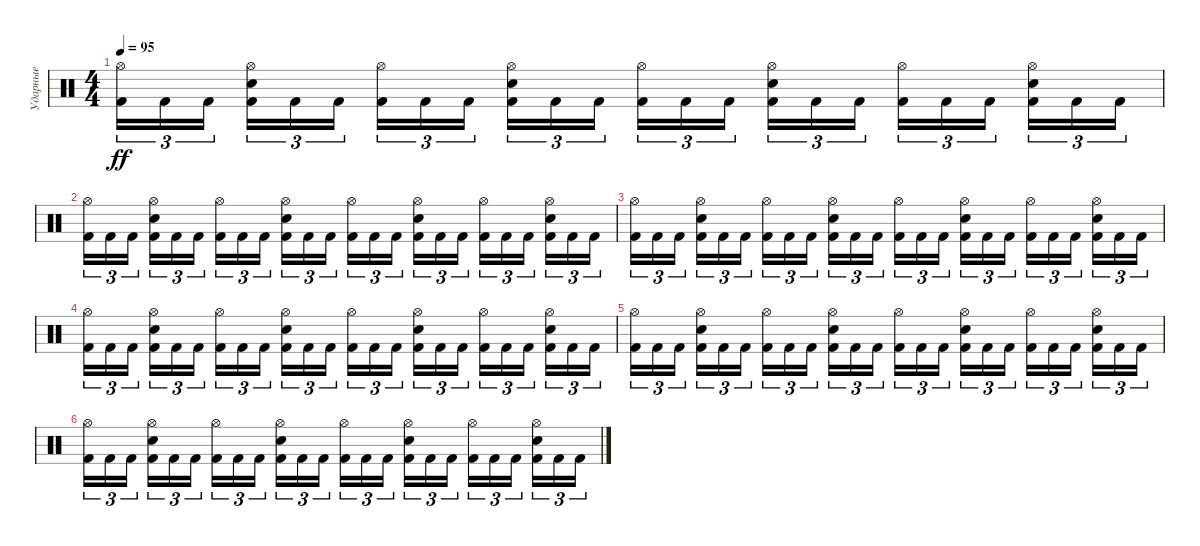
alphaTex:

\track ("Ударные" "Ударные") {instrument percussion}
\staff
\articulation defaults
\ts (4 4)
\tempo 95
\clef neutral
\ks c
("Hi-Hat (open)" "Kick (hit) 2").16{tu (3 2) dy ff} "Kick (hit) 2".16{tu (3 2)} "Kick (hit) 2".16{tu (3 2) beam splitsecondary} ("Hi-Hat (open)" "Electric Snare (hit)" "Kick (hit) 2").16{tu (3 2)} "Kick (hit) 2".16{tu (3 2)} "Kick (hit) 2".16{tu (3 2)} ("Hi-Hat (open)" "Kick (hit) 2").16{tu (3 2)} "Kick (hit) 2".16{tu (3 2)} "Kick (hit) 2".16{tu (3 2) beam splitsecondary} ("Hi-Hat (open)" "Electric Snare (hit)" "Kick (hit) 2").16{tu (3 2)} "Kick (hit) 2".16{tu (3 2)} "Kick (hit) 2".16{tu (3 2)} ("Hi-Hat (open)" "Kick (hit) 2").16{tu (3 2)} "Kick (hit) 2".16{tu (3 2)} "Kick (hit) 2".16{tu (3 2) beam splitsecondary} ("Hi-Hat (open)" "Electric Snare (hit)" "Kick (hit) 2").16{tu (3 2)} "Kick (hit) 2".16{tu (3 2)} "Kick (hit) 2".16{tu (3 2)} ("Hi-Hat (open)" "Kick (hit) 2").16{tu (3 2)} "Kick (hit) 2".16{tu (3 2)} "Kick (hit) 2".16{tu (3 2) beam splitsecondary} ("Hi-Hat (open)" "Electric Snare (hit)" "Kick (hit) 2").16{tu (3 2)} "Kick (hit) 2".16{tu (3 2)} "Kick (hit) 2".16{tu (3 2)} |
("Hi-Hat (open)" "Kick (hit) 2").16{tu (3 2)} "Kick (hit) 2".16{tu (3 2)} "Kick (hit) 2".16{tu (3 2) beam splitsecondary} ("Hi-Hat (open)" "Electric Snare (hit)" "Kick (hit) 2").16{tu (3 2)} "Kick (hit) 2".16{tu (3 2)} "Kick (hit) 2".16{tu (3 2)} ("Hi-Hat (open)" "Kick (hit) 2").16{tu (3 2)} "Kick (hit) 2".16{tu (3 2)} "Kick (hit) 2".16{tu (3 2) beam splitsecondary} ("Hi-Hat (open)" "Electric Snare (hit)" "Kick (hit) 2").16{tu (3 2)} "Kick (hit) 2".16{tu (3 2)} "Kick (hit) 2".16{tu (3 2)} ("Hi-Hat (open)" "Kick (hit) 2").16{tu (3 2)} "Kick (hit) 2".16{tu (3 2)} "Kick (hit) 2".16{tu (3 2) beam splitsecondary} ("Hi-Hat (open)" "Electric Snare (hit)" "Kick (hit) 2").16{tu (3 2)} "Kick (hit) 2".16{tu (3 2)} "Kick (hit) 2".16{tu (3 2)} ("Hi-Hat (open)" "Kick (hit) 2").16{tu (3 2)} "Kick (hit) 2".16{tu (3 2)} "Kick (hit) 2".16{tu (3 2) beam splitsecondary} ("Hi-Hat (open)" "Electric Snare (hit)" "Kick (hit) 2").16{tu (3 2)} "Kick (hit) 2".16{tu (3 2)} "Kick (hit) 2".16{tu (3 2)} |
("Hi-Hat (open)" "Kick (hit) 2").16{tu (3 2)} "Kick (hit) 2".16{tu (3 2)} "Kick (hit) 2".16{tu (3 2) beam splitsecondary} ("Hi-Hat (open)" "Electric Snare (hit)" "Kick (hit) 2").16{tu (3 2)} "Kick (hit) 2".16{tu (3 2)} "Kick (hit) 2".16{tu (3 2)} ("Hi-Hat (open)" "Kick (hit) 2").16{tu (3 2)} "Kick (hit) 2".16{tu (3 2)} "Kick (hit) 2".16{tu (3 2) beam splitsecondary} ("Hi-Hat (open)" "Electric Snare (hit)" "Kick (hit) 2").16{tu (3 2)} "Kick (hit) 2".16{tu (3 2)} "Kick (hit) 2".16{tu (3 2)} ("Hi-Hat (open)" "Kick (hit) 2").16{tu (3 2)} "Kick (hit) 2".16{tu (3 2)} "Kick (hit) 2".16{tu (3 2) beam splitsecondary} ("Hi-Hat (open)" "Electric Snare (hit)" "Kick (hit) 2").16{tu (3 2)} "Kick (hit) 2".16{tu (3 2)} "Kick (hit) 2".16{tu (3 2)} ("Hi-Hat (open)" "Kick (hit) 2").16{tu (3 2)} "Kick (hit) 2".16{tu (3 2)} "Kick (hit) 2".16{tu (3 2) beam splitsecondary} ("Hi-Hat (open)" "Electric Snare (hit)" "Kick (hit) 2").16{tu (3 2)} "Kick (hit) 2".16{tu (3 2)} "Kick (hit) 2".16{tu (3 2)} |
("Hi-Hat (open)" "Kick (hit) 2").16{tu (3 2)} "Kick (hit) 2".16{tu (3 2)} "Kick (hit) 2".16{tu (3 2) beam splitsecondary} ("Hi-Hat (open)" "Electric Snare (hit)" "Kick (hit) 2").16{tu (3 2)} "Kick (hit) 2".16{tu (3 2)} "Kick (hit) 2".16{tu (3 2)} ("Hi-Hat (open)" "Kick (hit) 2").16{tu (3 2)} "Kick (hit) 2".16{tu (3 2)} "Kick (hit) 2".16{tu (3 2) beam splitsecondary} ("Hi-Hat (open)" "Electric Snare (hit)" "Kick (hit) 2").16{tu (3 2)} "Kick (hit) 2".16{tu (3 2)} "Kick (hit) 2".16{tu (3 2)} ("Hi-Hat (open)" "Kick (hit) 2").16{tu (3 2)} "Kick (hit) 2".16{tu (3 2)} "Kick (hit) 2".16{tu (3 2) beam splitsecondary} ("Hi-Hat (open)" "Electric Snare (hit)" "Kick (hit) 2").16{tu (3 2)} "Kick (hit) 2".16{tu (3 2)} "Kick (hit) 2".16{tu (3 2)} ("Hi-Hat (open)" "Kick (hit) 2").16{tu (3 2)} "Kick (hit) 2".16{tu (3 2)} "Kick (hit) 2".16{tu (3 2) beam splitsecondary} ("Hi-Hat (open)" "Electric Snare (hit)" "Kick (hit) 2").16{tu (3 2)} "Kick (hit) 2".16{tu (3 2)} "Kick (hit) 2".16{tu (3 2)} |
("Hi-Hat (open)" "Kick (hit) 2").16{tu (3 2)} "Kick (hit) 2".16{tu (3 2)} "Kick (hit) 2".16{tu (3 2) beam splitsecondary} ("Hi-Hat (open)" "Electric Snare (hit)" "Kick (hit) 2").16{tu (3 2)} "Kick (hit) 2".16{tu (3 2)} "Kick (hit) 2".16{tu (3 2)} ("Hi-Hat (open)" "Kick (hit) 2").16{tu (3 2)} "Kick (hit) 2".16{tu (3 2)} "Kick (hit) 2".16{tu (3 2) beam splitsecondary} ("Hi-Hat (open)" "Electric Snare (hit)" "Kick (hit) 2").16{tu (3 2)} "Kick (hit) 2".16{tu (3 2)} "Kick (hit) 2".16{tu (3 2)} ("Hi-Hat (open)" "Kick (hit) 2").16{tu (3 2)} "Kick (hit) 2".16{tu (3 2)} "Kick (hit) 2".16{tu (3 2) beam splitsecondary} ("Hi-Hat (open)" "Electric Snare (hit)" "Kick (hit) 2").16{tu (3 2)} "Kick (hit) 2".16{tu (3 2)} "Kick (hit) 2".16{tu (3 2)} ("Hi-Hat (open)" "Kick (hit) 2").16{tu (3 2)} "Kick (hit) 2".16{tu (3 2)} "Kick (hit) 2".16{tu (3 2) beam splitsecondary} ("Hi-Hat (open)" "Electric Snare (hit)" "Kick (hit) 2").16{tu (3 2)} "Kick (hit) 2".16{tu (3 2)} "Kick (hit) 2".16{tu (3 2)} |
("Hi-Hat (open)" "Kick (hit) 2").16{tu (3 2)} "Kick (hit) 2".16{tu (3 2)} "Kick (hit) 2".16{tu (3 2) beam splitsecondary} ("Hi-Hat (open)" "Electric Snare (hit)" "Kick (hit) 2").16{tu (3 2)} "Kick (hit) 2".16{tu (3 2)} "Kick (hit) 2".16{tu (3 2)} ("Hi-Hat (open)" "Kick (hit) 2").16{tu (3 2)} "Kick (hit) 2".16{tu (3 2)} "Kick (hit) 2".16{tu (3 2) beam splitsecondary} ("Hi-Hat (open)" "Electric Snare (hit)" "Kick (hit) 2").16{tu (3 2)} "Kick (hit) 2".16{tu (3 2)} "Kick (hit) 2".16{tu (3 2)} ("Hi-Hat (open)" "Kick (hit) 2").16{tu (3 2)} "Kick (hit) 2".16{tu (3 2)} "Kick (hit) 2".16{tu (3 2) beam splitsecondary} ("Hi-Hat (open)" "Electric Snare (hit)" "Kick (hit) 2").16{tu (3 2)} "Kick (hit) 2".16{tu (3 2)} "Kick (hit) 2".16{tu (3 2)} ("Hi-Hat (open)" "Kick (hit) 2").16{tu (3 2)} "Kick (hit) 2".16{tu (3 2)} "Kick (hit) 2".16{tu (3 2) beam splitsecondary} ("Hi-Hat (open)" "Electric Snare (hit)" "Kick (hit) 2").16{tu (3 2)} "Kick (hit) 2".16{tu (3 2)} "Kick (hit) 2".16{tu (3 2)}
